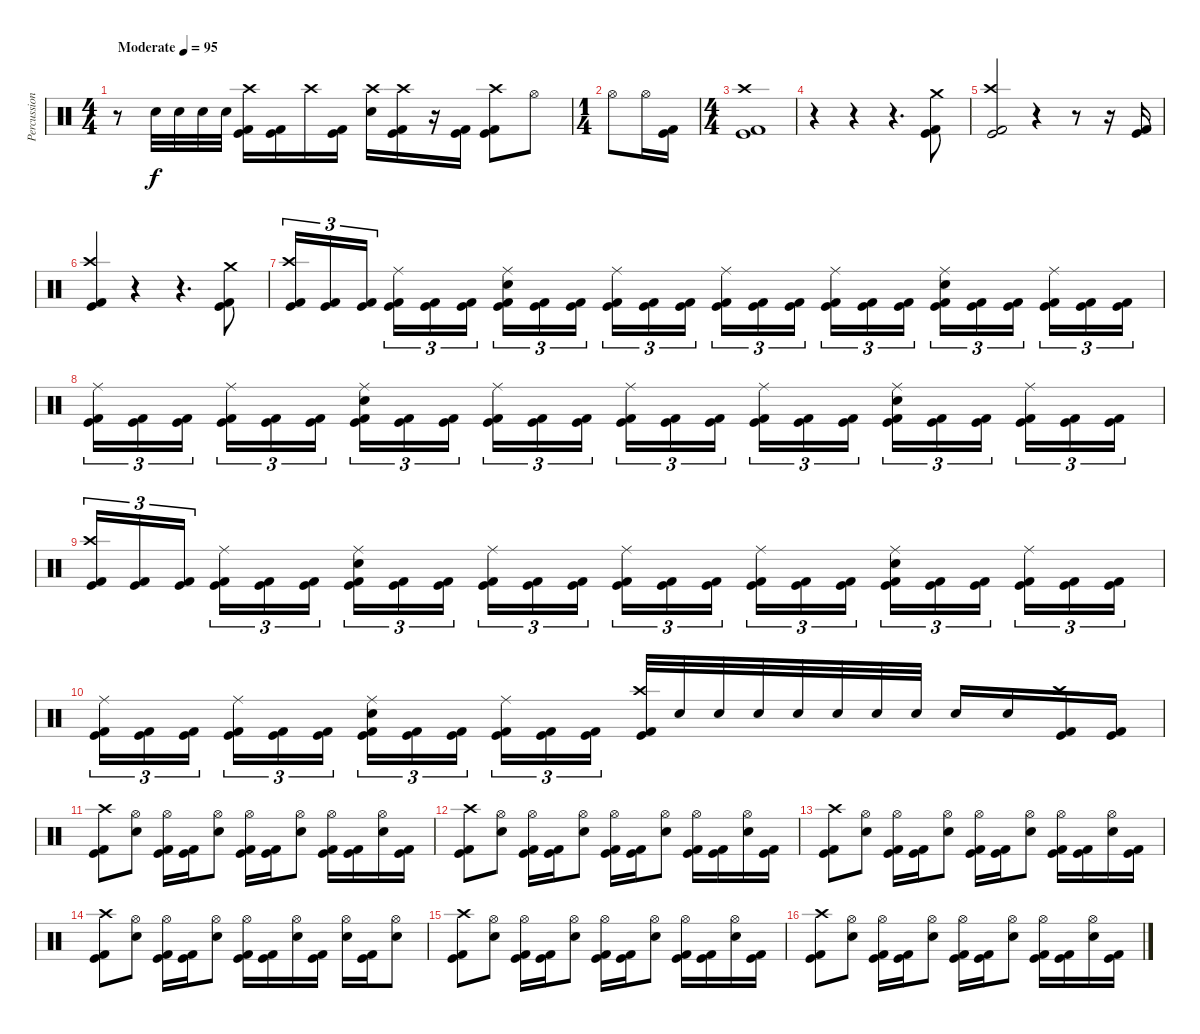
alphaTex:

\track ("Percussion" "Percussion") {instrument percussion}
\staff {score}
\articulation defaults
\ts (4 4)
\tempo (95 "Moderate")
\clef neutral
\ks c
r.8{dy f} "Electric Snare (hit)".32 "Electric Snare (hit)".32 "Electric Snare (hit)".32 "Electric Snare (hit)".32 ("Kick (hit) 2" "Crash high (hit)" "Kick (hit)").16 ("Kick (hit) 2" "Kick (hit)").16 "Crash high (hit)".16 ("Kick (hit) 2" "Kick (hit)").16 ("Electric Snare (hit)" "Crash high (hit)").16 ("Kick (hit) 2" "Crash high (hit)" "Kick (hit)").16 r.16 ("Kick (hit) 2" "Kick (hit)").16 ("Kick (hit) 2" "Crash high (hit)" "Kick (hit)").8 "Hi-Hat (open)".8 |
\ts (1 4)
"Hi-Hat (open)".8 "Hi-Hat (open)".16 ("Kick (hit) 2" "Kick (hit)").16 |
\ts (4 4)
("Kick (hit) 2" "Crash high (hit)" "Kick (hit)").1 |
r.4 r.4 r.4{d} ("Kick (hit) 2" "Crash medium (hit)" "Kick (hit)").8 |
("Kick (hit) 2" "Crash high (hit)" "Kick (hit)").2 r.4 r.8 r.16 ("Kick (hit) 2" "Kick (hit)").16 |
("Kick (hit) 2" "Crash high (hit)" "Kick (hit)").4 r.4 r.4{d} ("Kick (hit) 2" "Crash medium (hit)" "Kick (hit)").8 |
("Kick (hit) 2" "Crash high (hit)" "Kick (hit)").16{tu (3 2)} ("Kick (hit) 2" "Kick (hit)").16{tu (3 2)} ("Kick (hit) 2" "Kick (hit)").16{tu (3 2) beam splitsecondary} ("Kick (hit) 2" "Ride (middle)" "Kick (hit)").16{tu (3 2)} ("Kick (hit) 2" "Kick (hit)").16{tu (3 2)} ("Kick (hit) 2" "Kick (hit)").16{tu (3 2)} ("Kick (hit) 2" "Electric Snare (hit)" "Ride (middle)" "Kick (hit)").16{tu (3 2)} ("Kick (hit) 2" "Kick (hit)").16{tu (3 2)} ("Kick (hit) 2" "Kick (hit)").16{tu (3 2) beam splitsecondary} ("Kick (hit) 2" "Ride (middle)" "Kick (hit)").16{tu (3 2)} ("Kick (hit) 2" "Kick (hit)").16{tu (3 2)} ("Kick (hit) 2" "Kick (hit)").16{tu (3 2)} ("Kick (hit) 2" "Ride (middle)" "Kick (hit)").16{tu (3 2)} ("Kick (hit) 2" "Kick (hit)").16{tu (3 2)} ("Kick (hit) 2" "Kick (hit)").16{tu (3 2) beam splitsecondary} ("Kick (hit) 2" "Ride (middle)" "Kick (hit)").16{tu (3 2)} ("Kick (hit) 2" "Kick (hit)").16{tu (3 2)} ("Kick (hit) 2" "Kick (hit)").16{tu (3 2)} ("Kick (hit) 2" "Electric Snare (hit)" "Ride (middle)" "Kick (hit)").16{tu (3 2)} ("Kick (hit) 2" "Kick (hit)").16{tu (3 2)} ("Kick (hit) 2" "Kick (hit)").16{tu (3 2) beam splitsecondary} ("Kick (hit) 2" "Ride (middle)" "Kick (hit)").16{tu (3 2)} ("Kick (hit) 2" "Kick (hit)").16{tu (3 2)} ("Kick (hit) 2" "Kick (hit)").16{tu (3 2)} |
("Kick (hit) 2" "Ride (middle)" "Kick (hit)").16{tu (3 2)} ("Kick (hit) 2" "Kick (hit)").16{tu (3 2)} ("Kick (hit) 2" "Kick (hit)").16{tu (3 2) beam splitsecondary} ("Kick (hit) 2" "Ride (middle)" "Kick (hit)").16{tu (3 2)} ("Kick (hit) 2" "Kick (hit)").16{tu (3 2)} ("Kick (hit) 2" "Kick (hit)").16{tu (3 2)} ("Kick (hit) 2" "Electric Snare (hit)" "Ride (middle)" "Kick (hit)").16{tu (3 2)} ("Kick (hit) 2" "Kick (hit)").16{tu (3 2)} ("Kick (hit) 2" "Kick (hit)").16{tu (3 2) beam splitsecondary} ("Kick (hit) 2" "Ride (middle)" "Kick (hit)").16{tu (3 2)} ("Kick (hit) 2" "Kick (hit)").16{tu (3 2)} ("Kick (hit) 2" "Kick (hit)").16{tu (3 2)} ("Kick (hit) 2" "Ride (middle)" "Kick (hit)").16{tu (3 2)} ("Kick (hit) 2" "Kick (hit)").16{tu (3 2)} ("Kick (hit) 2" "Kick (hit)").16{tu (3 2) beam splitsecondary} ("Kick (hit) 2" "Ride (middle)" "Kick (hit)").16{tu (3 2)} ("Kick (hit) 2" "Kick (hit)").16{tu (3 2)} ("Kick (hit) 2" "Kick (hit)").16{tu (3 2)} ("Kick (hit) 2" "Electric Snare (hit)" "Ride (middle)" "Kick (hit)").16{tu (3 2)} ("Kick (hit) 2" "Kick (hit)").16{tu (3 2)} ("Kick (hit) 2" "Kick (hit)").16{tu (3 2) beam splitsecondary} ("Kick (hit) 2" "Ride (middle)" "Kick (hit)").16{tu (3 2)} ("Kick (hit) 2" "Kick (hit)").16{tu (3 2)} ("Kick (hit) 2" "Kick (hit)").16{tu (3 2)} |
("Kick (hit) 2" "Crash high (hit)" "Kick (hit)").16{tu (3 2)} ("Kick (hit) 2" "Kick (hit)").16{tu (3 2)} ("Kick (hit) 2" "Kick (hit)").16{tu (3 2) beam splitsecondary} ("Kick (hit) 2" "Ride (middle)" "Kick (hit)").16{tu (3 2)} ("Kick (hit) 2" "Kick (hit)").16{tu (3 2)} ("Kick (hit) 2" "Kick (hit)").16{tu (3 2)} ("Kick (hit) 2" "Electric Snare (hit)" "Ride (middle)" "Kick (hit)").16{tu (3 2)} ("Kick (hit) 2" "Kick (hit)").16{tu (3 2)} ("Kick (hit) 2" "Kick (hit)").16{tu (3 2) beam splitsecondary} ("Kick (hit) 2" "Ride (middle)" "Kick (hit)").16{tu (3 2)} ("Kick (hit) 2" "Kick (hit)").16{tu (3 2)} ("Kick (hit) 2" "Kick (hit)").16{tu (3 2)} ("Kick (hit) 2" "Ride (middle)" "Kick (hit)").16{tu (3 2)} ("Kick (hit) 2" "Kick (hit)").16{tu (3 2)} ("Kick (hit) 2" "Kick (hit)").16{tu (3 2) beam splitsecondary} ("Kick (hit) 2" "Ride (middle)" "Kick (hit)").16{tu (3 2)} ("Kick (hit) 2" "Kick (hit)").16{tu (3 2)} ("Kick (hit) 2" "Kick (hit)").16{tu (3 2)} ("Kick (hit) 2" "Electric Snare (hit)" "Ride (middle)" "Kick (hit)").16{tu (3 2)} ("Kick (hit) 2" "Kick (hit)").16{tu (3 2)} ("Kick (hit) 2" "Kick (hit)").16{tu (3 2) beam splitsecondary} ("Kick (hit) 2" "Ride (middle)" "Kick (hit)").16{tu (3 2)} ("Kick (hit) 2" "Kick (hit)").16{tu (3 2)} ("Kick (hit) 2" "Kick (hit)").16{tu (3 2)} |
("Kick (hit) 2" "Ride (middle)" "Kick (hit)").16{tu (3 2)} ("Kick (hit) 2" "Kick (hit)").16{tu (3 2)} ("Kick (hit) 2" "Kick (hit)").16{tu (3 2) beam splitsecondary} ("Kick (hit) 2" "Ride (middle)" "Kick (hit)").16{tu (3 2)} ("Kick (hit) 2" "Kick (hit)").16{tu (3 2)} ("Kick (hit) 2" "Kick (hit)").16{tu (3 2)} ("Kick (hit) 2" "Electric Snare (hit)" "Ride (middle)" "Kick (hit)").16{tu (3 2)} ("Kick (hit) 2" "Kick (hit)").16{tu (3 2)} ("Kick (hit) 2" "Kick (hit)").16{tu (3 2) beam splitsecondary} ("Kick (hit) 2" "Ride (middle)" "Kick (hit)").16{tu (3 2)} ("Kick (hit) 2" "Kick (hit)").16{tu (3 2)} ("Kick (hit) 2" "Kick (hit)").16{tu (3 2)} ("Kick (hit) 2" "Crash high (hit)" "Kick (hit)").32 "Electric Snare (hit)".32 "Electric Snare (hit)".32 "Electric Snare (hit)".32 "Electric Snare (hit)".32 "Electric Snare (hit)".32 "Electric Snare (hit)".32 "Electric Snare (hit)".32 "Electric Snare (hit)".16 "Electric Snare (hit)".16 ("Kick (hit) 2" "Crash high (hit)" "Kick (hit)").16 ("Kick (hit) 2" "Kick (hit)").16 |
("Kick (hit) 2" "Crash high (hit)" "Kick (hit)").8 ("Electric Snare (hit)" "Hi-Hat (open)").8 ("Kick (hit) 2" "Hi-Hat (open)" "Kick (hit)").16 ("Kick (hit) 2" "Kick (hit)").16 ("Electric Snare (hit)" "Hi-Hat (open)").8 ("Kick (hit) 2" "Hi-Hat (open)" "Kick (hit)").16 ("Kick (hit) 2" "Kick (hit)").16 ("Electric Snare (hit)" "Hi-Hat (open)").8 ("Kick (hit) 2" "Hi-Hat (open)" "Kick (hit)").16 ("Kick (hit) 2" "Kick (hit)").16 ("Electric Snare (hit)" "Hi-Hat (open)").16 ("Kick (hit) 2" "Kick (hit)").16 |
("Kick (hit) 2" "Crash high (hit)" "Kick (hit)").8 ("Electric Snare (hit)" "Hi-Hat (open)").8 ("Kick (hit) 2" "Hi-Hat (open)" "Kick (hit)").16 ("Kick (hit) 2" "Kick (hit)").16 ("Electric Snare (hit)" "Hi-Hat (open)").8 ("Kick (hit) 2" "Hi-Hat (open)" "Kick (hit)").16 ("Kick (hit) 2" "Kick (hit)").16 ("Electric Snare (hit)" "Hi-Hat (open)").8 ("Kick (hit) 2" "Hi-Hat (open)" "Kick (hit)").16 ("Kick (hit) 2" "Kick (hit)").16 ("Electric Snare (hit)" "Hi-Hat (open)").16 ("Kick (hit) 2" "Kick (hit)").16 |
("Kick (hit) 2" "Crash high (hit)" "Kick (hit)").8 ("Electric Snare (hit)" "Hi-Hat (open)").8 ("Kick (hit) 2" "Hi-Hat (open)" "Kick (hit)").16 ("Kick (hit) 2" "Kick (hit)").16 ("Electric Snare (hit)" "Hi-Hat (open)").8 ("Kick (hit) 2" "Hi-Hat (open)" "Kick (hit)").16 ("Kick (hit) 2" "Kick (hit)").16 ("Electric Snare (hit)" "Hi-Hat (open)").8 ("Kick (hit) 2" "Hi-Hat (open)" "Kick (hit)").16 ("Kick (hit) 2" "Kick (hit)").16 ("Electric Snare (hit)" "Hi-Hat (open)").16 ("Kick (hit) 2" "Kick (hit)").16 |
("Kick (hit) 2" "Crash high (hit)" "Kick (hit)").8 ("Electric Snare (hit)" "Hi-Hat (open)").8 ("Kick (hit) 2" "Hi-Hat (open)" "Kick (hit)").16 ("Kick (hit) 2" "Kick (hit)").16 ("Electric Snare (hit)" "Hi-Hat (open)").8 ("Kick (hit) 2" "Hi-Hat (open)" "Kick (hit)").16 ("Kick (hit) 2" "Kick (hit)").16 ("Electric Snare (hit)" "Hi-Hat (open)").16 ("Kick (hit) 2" "Kick (hit)").16 ("Electric Snare (hit)" "Hi-Hat (open)").16 ("Kick (hit) 2" "Kick (hit)").16 ("Electric Snare (hit)" "Hi-Hat (open)").8 |
("Kick (hit) 2" "Crash high (hit)" "Kick (hit)").8 ("Electric Snare (hit)" "Hi-Hat (open)").8 ("Kick (hit) 2" "Hi-Hat (open)" "Kick (hit)").16 ("Kick (hit) 2" "Kick (hit)").16 ("Electric Snare (hit)" "Hi-Hat (open)").8 ("Kick (hit) 2" "Hi-Hat (open)" "Kick (hit)").16 ("Kick (hit) 2" "Kick (hit)").16 ("Electric Snare (hit)" "Hi-Hat (open)").8 ("Kick (hit) 2" "Hi-Hat (open)" "Kick (hit)").16 ("Kick (hit) 2" "Kick (hit)").16 ("Electric Snare (hit)" "Hi-Hat (open)").16 ("Kick (hit) 2" "Kick (hit)").16 |
("Kick (hit) 2" "Crash high (hit)" "Kick (hit)").8 ("Electric Snare (hit)" "Hi-Hat (open)").8 ("Kick (hit) 2" "Hi-Hat (open)" "Kick (hit)").16 ("Kick (hit) 2" "Kick (hit)").16 ("Electric Snare (hit)" "Hi-Hat (open)").8 ("Kick (hit) 2" "Hi-Hat (open)" "Kick (hit)").16 ("Kick (hit) 2" "Kick (hit)").16 ("Electric Snare (hit)" "Hi-Hat (open)").8 ("Kick (hit) 2" "Hi-Hat (open)" "Kick (hit)").16 ("Kick (hit) 2" "Kick (hit)").16 ("Electric Snare (hit)" "Hi-Hat (open)").16 ("Kick (hit) 2" "Kick (hit)").16
